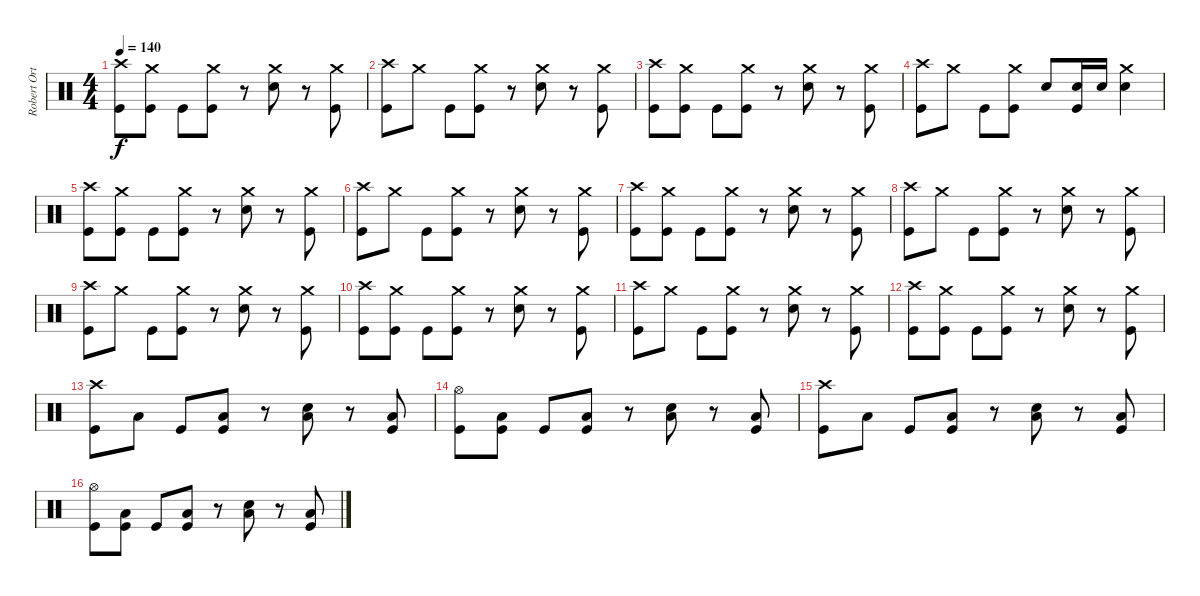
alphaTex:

\track ("Robert Ortiz" "Robert Ort") {instrument percussion}
\staff {score}
\articulation defaults
\ts (4 4)
\tempo 140
\clef neutral
\ks c
("Crash high (hit)" "Kick (hit)").8{dy f} ("Crash medium (hit)" "Kick (hit)").8 "Kick (hit)".8 ("Crash medium (hit)" "Kick (hit)").8 r.8 ("Crash medium (hit)" "Snare (hit) 2").8 r.8 ("Crash medium (hit)" "Kick (hit)").8 |
("Crash high (hit)" "Kick (hit)").8 "Crash medium (hit)".8 "Kick (hit)".8 ("Crash medium (hit)" "Kick (hit)").8 r.8 ("Crash medium (hit)" "Snare (hit) 2").8 r.8 ("Crash medium (hit)" "Kick (hit)").8 |
("Crash high (hit)" "Kick (hit)").8 ("Crash medium (hit)" "Kick (hit)").8 "Kick (hit)".8 ("Crash medium (hit)" "Kick (hit)").8 r.8 ("Crash medium (hit)" "Snare (hit) 2").8 r.8 ("Crash medium (hit)" "Kick (hit)").8 |
("Crash high (hit)" "Kick (hit)").8 "Crash medium (hit)".8 "Kick (hit)".8 ("Crash medium (hit)" "Kick (hit)").8 "Snare (hit) 2".8 ("Snare (hit) 2" "Kick (hit)").16 "Snare (hit) 2".16 ("Crash medium (hit)" "Snare (hit) 2").4 |
("Crash high (hit)" "Kick (hit)").8 ("Crash medium (hit)" "Kick (hit)").8 "Kick (hit)".8 ("Crash medium (hit)" "Kick (hit)").8 r.8 ("Crash medium (hit)" "Snare (hit) 2").8 r.8 ("Crash medium (hit)" "Kick (hit)").8 |
("Crash high (hit)" "Kick (hit)").8 "Crash medium (hit)".8 "Kick (hit)".8 ("Crash medium (hit)" "Kick (hit)").8 r.8 ("Crash medium (hit)" "Snare (hit) 2").8 r.8 ("Crash medium (hit)" "Kick (hit)").8 |
("Crash high (hit)" "Kick (hit)").8 ("Crash medium (hit)" "Kick (hit)").8 "Kick (hit)".8 ("Crash medium (hit)" "Kick (hit)").8 r.8 ("Crash medium (hit)" "Snare (hit) 2").8 r.8 ("Crash medium (hit)" "Kick (hit)").8 |
("Crash high (hit)" "Kick (hit)").8 "Crash medium (hit)".8 "Kick (hit)".8 ("Crash medium (hit)" "Kick (hit)").8 r.8 ("Crash medium (hit)" "Snare (hit) 2").8 r.8 ("Crash medium (hit)" "Kick (hit)").8 |
("Crash high (hit)" "Kick (hit)").8 "Crash medium (hit)".8 "Kick (hit)".8 ("Crash medium (hit)" "Kick (hit)").8 r.8 ("Crash medium (hit)" "Snare (hit) 2").8 r.8 ("Crash medium (hit)" "Kick (hit)").8 |
("Crash high (hit)" "Kick (hit)").8 ("Crash medium (hit)" "Kick (hit)").8 "Kick (hit)".8 ("Crash medium (hit)" "Kick (hit)").8 r.8 ("Crash medium (hit)" "Snare (hit) 2").8 r.8 ("Crash medium (hit)" "Kick (hit)").8 |
("Crash high (hit)" "Kick (hit)").8 "Crash medium (hit)".8 "Kick (hit)".8 ("Crash medium (hit)" "Kick (hit)").8 r.8 ("Crash medium (hit)" "Snare (hit) 2").8 r.8 ("Crash medium (hit)" "Kick (hit)").8 |
("Crash high (hit)" "Kick (hit)").8 ("Crash medium (hit)" "Kick (hit)").8 "Kick (hit)".8 ("Crash medium (hit)" "Kick (hit)").8 r.8 ("Crash medium (hit)" "Snare (hit) 2").8 r.8 ("Crash medium (hit)" "Kick (hit)").8 |
("Crash high (hit)" "Kick (hit)").8 "Low Floor Tom (hit)".8 "Kick (hit)".8 ("Low Floor Tom (hit)" "Kick (hit)").8 r.8 ("Low Floor Tom (hit)" "Snare (hit) 2").8 r.8 ("Low Floor Tom (hit)" "Kick (hit)").8 |
("Hi-Hat (open)" "Kick (hit)").8 ("Low Floor Tom (hit)" "Kick (hit)").8 "Kick (hit)".8 ("Low Floor Tom (hit)" "Kick (hit)").8 r.8 ("Low Floor Tom (hit)" "Snare (hit) 2").8 r.8 ("Low Floor Tom (hit)" "Kick (hit)").8 |
("Crash high (hit)" "Kick (hit)").8 "Low Floor Tom (hit)".8 "Kick (hit)".8 ("Low Floor Tom (hit)" "Kick (hit)").8 r.8 ("Low Floor Tom (hit)" "Snare (hit) 2").8 r.8 ("Low Floor Tom (hit)" "Kick (hit)").8 |
("Hi-Hat (open)" "Kick (hit)").8 ("Low Floor Tom (hit)" "Kick (hit)").8 "Kick (hit)".8 ("Low Floor Tom (hit)" "Kick (hit)").8 r.8 ("Low Floor Tom (hit)" "Snare (hit) 2").8 r.8 ("Low Floor Tom (hit)" "Kick (hit)").8
